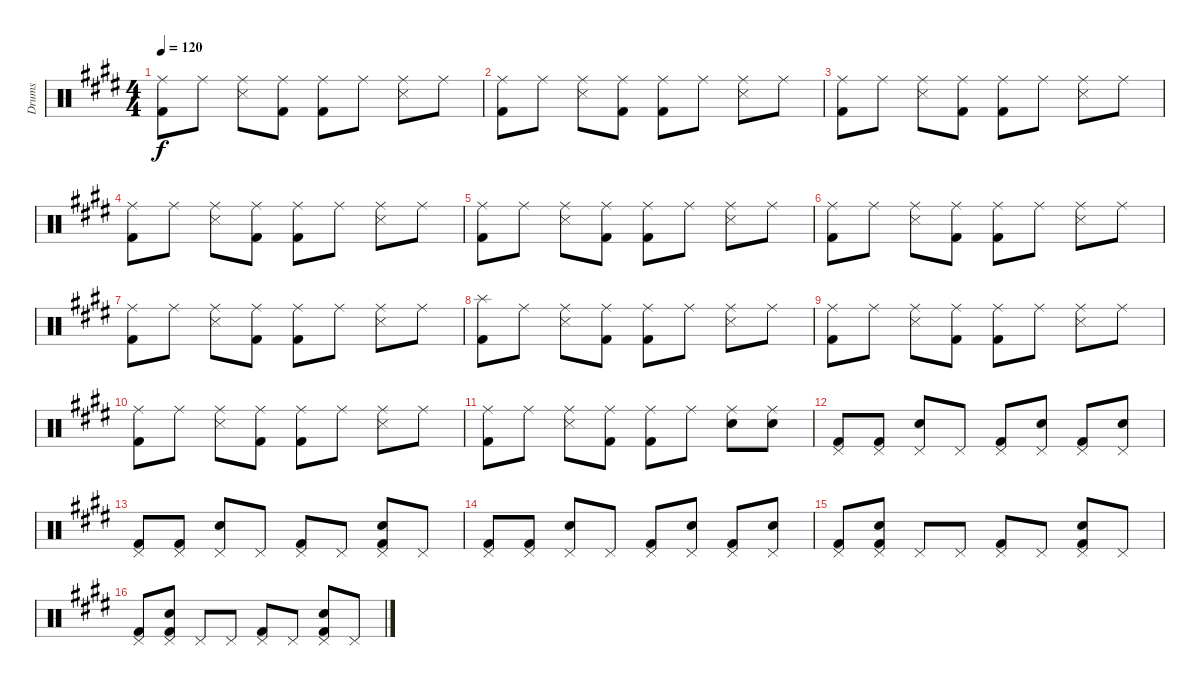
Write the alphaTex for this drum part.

\track ("Drums" "Drums") {instrument percussion}
\staff {score}
\articulation defaults
\ts (4 4)
\tempo 120
\clef neutral
\ks e
("Ride (middle)" "Kick (hit) 2").8{dy f} "Ride (middle)".8 ("Ride (middle)" "Snare (side stick) 3").8 ("Ride (middle)" "Kick (hit) 2").8 ("Ride (middle)" "Kick (hit) 2").8 "Ride (middle)".8 ("Ride (middle)" "Snare (side stick) 3").8 "Ride (middle)".8 |
("Ride (middle)" "Kick (hit) 2").8 "Ride (middle)".8 ("Ride (middle)" "Snare (side stick) 3").8 ("Ride (middle)" "Kick (hit) 2").8 ("Ride (middle)" "Kick (hit) 2").8 "Ride (middle)".8 ("Ride (middle)" "Snare (side stick) 3").8 "Ride (middle)".8 |
("Ride (middle)" "Kick (hit) 2").8 "Ride (middle)".8 ("Ride (middle)" "Snare (side stick) 3").8 ("Ride (middle)" "Kick (hit) 2").8 ("Ride (middle)" "Kick (hit) 2").8 "Ride (middle)".8 ("Ride (middle)" "Snare (side stick) 3").8 "Ride (middle)".8 |
("Ride (middle)" "Kick (hit) 2").8 "Ride (middle)".8 ("Ride (middle)" "Snare (side stick) 3").8 ("Ride (middle)" "Kick (hit) 2").8 ("Ride (middle)" "Kick (hit) 2").8 "Ride (middle)".8 ("Ride (middle)" "Snare (side stick) 3").8 "Ride (middle)".8 |
("Ride (middle)" "Kick (hit) 2").8 "Ride (middle)".8 ("Ride (middle)" "Snare (side stick) 3").8 ("Ride (middle)" "Kick (hit) 2").8 ("Ride (middle)" "Kick (hit) 2").8 "Ride (middle)".8 ("Ride (middle)" "Snare (side stick) 3").8 "Ride (middle)".8 |
("Ride (middle)" "Kick (hit) 2").8 "Ride (middle)".8 ("Ride (middle)" "Snare (side stick) 3").8 ("Ride (middle)" "Kick (hit) 2").8 ("Ride (middle)" "Kick (hit) 2").8 "Ride (middle)".8 ("Ride (middle)" "Snare (side stick) 3").8 "Ride (middle)".8 |
("Ride (middle)" "Kick (hit) 2").8 "Ride (middle)".8 ("Ride (middle)" "Snare (side stick) 3").8 ("Ride (middle)" "Kick (hit) 2").8 ("Ride (middle)" "Kick (hit) 2").8 "Ride (middle)".8 ("Ride (middle)" "Snare (side stick) 3").8 "Ride (middle)".8 |
("Splash (hit)" "Kick (hit) 2").8 "Ride (middle)".8 ("Ride (middle)" "Snare (side stick) 3").8 ("Ride (middle)" "Kick (hit) 2").8 ("Ride (middle)" "Kick (hit) 2").8 "Ride (middle)".8 ("Ride (middle)" "Snare (side stick) 3").8 "Ride (middle)".8 |
("Ride (middle)" "Kick (hit) 2").8 "Ride (middle)".8 ("Ride (middle)" "Snare (side stick) 3").8 ("Ride (middle)" "Kick (hit) 2").8 ("Ride (middle)" "Kick (hit) 2").8 "Ride (middle)".8 ("Ride (middle)" "Snare (side stick) 3").8 "Ride (middle)".8 |
("Ride (middle)" "Kick (hit) 2").8 "Ride (middle)".8 ("Ride (middle)" "Snare (side stick) 3").8 ("Ride (middle)" "Kick (hit) 2").8 ("Ride (middle)" "Kick (hit) 2").8 "Ride (middle)".8 ("Ride (middle)" "Snare (side stick) 3").8 "Ride (middle)".8 |
("Ride (middle)" "Kick (hit) 2").8 "Ride (middle)".8 ("Ride (middle)" "Snare (side stick) 3").8 ("Ride (middle)" "Kick (hit) 2").8 ("Ride (middle)" "Kick (hit) 2").8 "Ride (middle)".8 ("Ride (middle)" "Snare (hit) 2").8 ("Ride (middle)" "Snare (hit) 2").8 |
("Pedal Hi-Hat (hit)" "Kick (hit) 2").8 ("Pedal Hi-Hat (hit)" "Kick (hit) 2").8 ("Pedal Hi-Hat (hit)" "Snare (hit) 2").8 "Pedal Hi-Hat (hit)".8 ("Pedal Hi-Hat (hit)" "Kick (hit) 2").8 ("Pedal Hi-Hat (hit)" "Snare (hit) 2").8 ("Pedal Hi-Hat (hit)" "Kick (hit) 2").8 ("Pedal Hi-Hat (hit)" "Snare (hit) 2").8 |
("Pedal Hi-Hat (hit)" "Kick (hit) 2").8 ("Pedal Hi-Hat (hit)" "Kick (hit) 2").8 ("Pedal Hi-Hat (hit)" "Snare (hit) 2").8 "Pedal Hi-Hat (hit)".8 ("Pedal Hi-Hat (hit)" "Kick (hit) 2").8 "Pedal Hi-Hat (hit)".8 ("Pedal Hi-Hat (hit)" "Snare (hit) 2" "Kick (hit) 2").8 "Pedal Hi-Hat (hit)".8 |
("Pedal Hi-Hat (hit)" "Kick (hit) 2").8 ("Pedal Hi-Hat (hit)" "Kick (hit) 2").8 ("Pedal Hi-Hat (hit)" "Snare (hit) 2").8 "Pedal Hi-Hat (hit)".8 ("Pedal Hi-Hat (hit)" "Kick (hit) 2").8 ("Pedal Hi-Hat (hit)" "Snare (hit) 2").8 ("Pedal Hi-Hat (hit)" "Kick (hit) 2").8 ("Pedal Hi-Hat (hit)" "Snare (hit) 2").8 |
("Pedal Hi-Hat (hit)" "Kick (hit) 2").8 ("Pedal Hi-Hat (hit)" "Snare (hit) 2" "Kick (hit) 2").8 "Pedal Hi-Hat (hit)".8 "Pedal Hi-Hat (hit)".8 ("Pedal Hi-Hat (hit)" "Kick (hit) 2").8 "Pedal Hi-Hat (hit)".8 ("Pedal Hi-Hat (hit)" "Snare (hit) 2" "Kick (hit) 2").8 "Pedal Hi-Hat (hit)".8 |
("Pedal Hi-Hat (hit)" "Kick (hit) 2").8 ("Pedal Hi-Hat (hit)" "Snare (hit) 2" "Kick (hit) 2").8 "Pedal Hi-Hat (hit)".8 "Pedal Hi-Hat (hit)".8 ("Pedal Hi-Hat (hit)" "Kick (hit) 2").8 "Pedal Hi-Hat (hit)".8 ("Pedal Hi-Hat (hit)" "Snare (hit) 2" "Kick (hit) 2").8 "Pedal Hi-Hat (hit)".8
